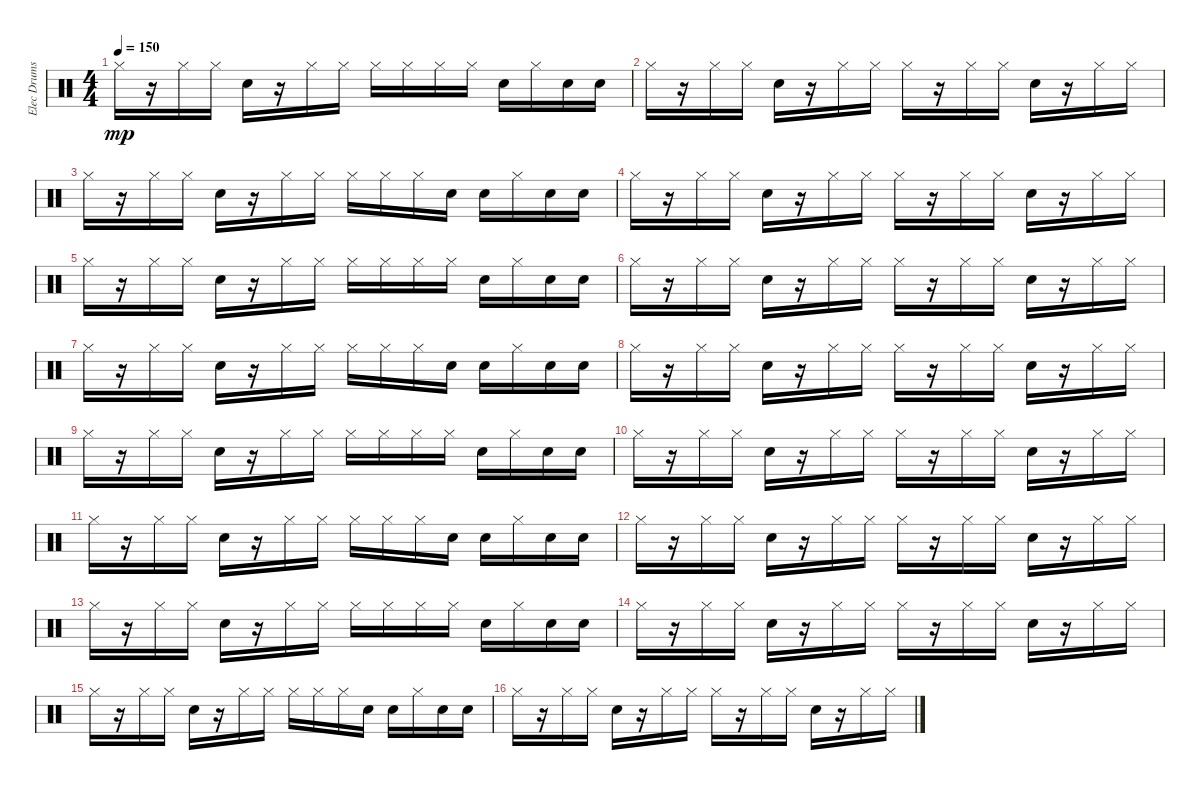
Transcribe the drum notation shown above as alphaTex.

\track ("Elec Drums" "Elec Drums") {instrument percussion}
\staff {score}
\articulation defaults
\ts (4 4)
\tempo 150
\clef neutral
\ks c "Hi-Hat (closed)".16{dy mp}
r.16 "Hi-Hat (closed)".16 "Hi-Hat (closed)".16 "Electric Snare (hit)".16 r.16 "Hi-Hat (closed)".16 "Hi-Hat (closed)".16 "Hi-Hat (closed)".16 "Hi-Hat (closed)".16 "Hi-Hat (closed)".16 "Hi-Hat (closed)".16 "Electric Snare (hit)".16 "Hi-Hat (closed)".16 "Electric Snare (hit)".16 "Electric Snare (hit)".16 |
"Hi-Hat (closed)".16 r.16 "Hi-Hat (closed)".16 "Hi-Hat (closed)".16 "Electric Snare (hit)".16 r.16 "Hi-Hat (closed)".16 "Hi-Hat (closed)".16 "Hi-Hat (closed)".16 r.16 "Hi-Hat (closed)".16 "Hi-Hat (closed)".16 "Electric Snare (hit)".16 r.16 "Hi-Hat (closed)".16 "Hi-Hat (closed)".16 |
"Hi-Hat (closed)".16 r.16 "Hi-Hat (closed)".16 "Hi-Hat (closed)".16 "Electric Snare (hit)".16 r.16 "Hi-Hat (closed)".16 "Hi-Hat (closed)".16 "Hi-Hat (closed)".16 "Hi-Hat (closed)".16 "Hi-Hat (closed)".16 "Electric Snare (hit)".16 "Electric Snare (hit)".16 "Hi-Hat (closed)".16 "Electric Snare (hit)".16 "Electric Snare (hit)".16 |
"Hi-Hat (closed)".16 r.16 "Hi-Hat (closed)".16 "Hi-Hat (closed)".16 "Electric Snare (hit)".16 r.16 "Hi-Hat (closed)".16 "Hi-Hat (closed)".16 "Hi-Hat (closed)".16 r.16 "Hi-Hat (closed)".16 "Hi-Hat (closed)".16 "Electric Snare (hit)".16 r.16 "Hi-Hat (closed)".16 "Hi-Hat (closed)".16 |
"Hi-Hat (closed)".16 r.16 "Hi-Hat (closed)".16 "Hi-Hat (closed)".16 "Electric Snare (hit)".16 r.16 "Hi-Hat (closed)".16 "Hi-Hat (closed)".16 "Hi-Hat (closed)".16 "Hi-Hat (closed)".16 "Hi-Hat (closed)".16 "Hi-Hat (closed)".16 "Electric Snare (hit)".16 "Hi-Hat (closed)".16 "Electric Snare (hit)".16 "Electric Snare (hit)".16 |
"Hi-Hat (closed)".16 r.16 "Hi-Hat (closed)".16 "Hi-Hat (closed)".16 "Electric Snare (hit)".16 r.16 "Hi-Hat (closed)".16 "Hi-Hat (closed)".16 "Hi-Hat (closed)".16 r.16 "Hi-Hat (closed)".16 "Hi-Hat (closed)".16 "Electric Snare (hit)".16 r.16 "Hi-Hat (closed)".16 "Hi-Hat (closed)".16 |
"Hi-Hat (closed)".16 r.16 "Hi-Hat (closed)".16 "Hi-Hat (closed)".16 "Electric Snare (hit)".16 r.16 "Hi-Hat (closed)".16 "Hi-Hat (closed)".16 "Hi-Hat (closed)".16 "Hi-Hat (closed)".16 "Hi-Hat (closed)".16 "Electric Snare (hit)".16 "Electric Snare (hit)".16 "Hi-Hat (closed)".16 "Electric Snare (hit)".16 "Electric Snare (hit)".16 |
"Hi-Hat (closed)".16 r.16 "Hi-Hat (closed)".16 "Hi-Hat (closed)".16 "Electric Snare (hit)".16 r.16 "Hi-Hat (closed)".16 "Hi-Hat (closed)".16 "Hi-Hat (closed)".16 r.16 "Hi-Hat (closed)".16 "Hi-Hat (closed)".16 "Electric Snare (hit)".16 r.16 "Hi-Hat (closed)".16 "Hi-Hat (closed)".16 |
"Hi-Hat (closed)".16 r.16 "Hi-Hat (closed)".16 "Hi-Hat (closed)".16 "Electric Snare (hit)".16 r.16 "Hi-Hat (closed)".16 "Hi-Hat (closed)".16 "Hi-Hat (closed)".16 "Hi-Hat (closed)".16 "Hi-Hat (closed)".16 "Hi-Hat (closed)".16 "Electric Snare (hit)".16 "Hi-Hat (closed)".16 "Electric Snare (hit)".16 "Electric Snare (hit)".16 |
"Hi-Hat (closed)".16 r.16 "Hi-Hat (closed)".16 "Hi-Hat (closed)".16 "Electric Snare (hit)".16 r.16 "Hi-Hat (closed)".16 "Hi-Hat (closed)".16 "Hi-Hat (closed)".16 r.16 "Hi-Hat (closed)".16 "Hi-Hat (closed)".16 "Electric Snare (hit)".16 r.16 "Hi-Hat (closed)".16 "Hi-Hat (closed)".16 |
"Hi-Hat (closed)".16 r.16 "Hi-Hat (closed)".16 "Hi-Hat (closed)".16 "Electric Snare (hit)".16 r.16 "Hi-Hat (closed)".16 "Hi-Hat (closed)".16 "Hi-Hat (closed)".16 "Hi-Hat (closed)".16 "Hi-Hat (closed)".16 "Electric Snare (hit)".16 "Electric Snare (hit)".16 "Hi-Hat (closed)".16 "Electric Snare (hit)".16 "Electric Snare (hit)".16 |
"Hi-Hat (closed)".16 r.16 "Hi-Hat (closed)".16 "Hi-Hat (closed)".16 "Electric Snare (hit)".16 r.16 "Hi-Hat (closed)".16 "Hi-Hat (closed)".16 "Hi-Hat (closed)".16 r.16 "Hi-Hat (closed)".16 "Hi-Hat (closed)".16 "Electric Snare (hit)".16 r.16 "Hi-Hat (closed)".16 "Hi-Hat (closed)".16 |
"Hi-Hat (closed)".16 r.16 "Hi-Hat (closed)".16 "Hi-Hat (closed)".16 "Electric Snare (hit)".16 r.16 "Hi-Hat (closed)".16 "Hi-Hat (closed)".16 "Hi-Hat (closed)".16 "Hi-Hat (closed)".16 "Hi-Hat (closed)".16 "Hi-Hat (closed)".16 "Electric Snare (hit)".16 "Hi-Hat (closed)".16 "Electric Snare (hit)".16 "Electric Snare (hit)".16 |
"Hi-Hat (closed)".16 r.16 "Hi-Hat (closed)".16 "Hi-Hat (closed)".16 "Electric Snare (hit)".16 r.16 "Hi-Hat (closed)".16 "Hi-Hat (closed)".16 "Hi-Hat (closed)".16 r.16 "Hi-Hat (closed)".16 "Hi-Hat (closed)".16 "Electric Snare (hit)".16 r.16 "Hi-Hat (closed)".16 "Hi-Hat (closed)".16 |
"Hi-Hat (closed)".16 r.16 "Hi-Hat (closed)".16 "Hi-Hat (closed)".16 "Electric Snare (hit)".16 r.16 "Hi-Hat (closed)".16 "Hi-Hat (closed)".16 "Hi-Hat (closed)".16 "Hi-Hat (closed)".16 "Hi-Hat (closed)".16 "Electric Snare (hit)".16 "Electric Snare (hit)".16 "Hi-Hat (closed)".16 "Electric Snare (hit)".16 "Electric Snare (hit)".16 |
"Hi-Hat (closed)".16 r.16 "Hi-Hat (closed)".16 "Hi-Hat (closed)".16 "Electric Snare (hit)".16 r.16 "Hi-Hat (closed)".16 "Hi-Hat (closed)".16 "Hi-Hat (closed)".16 r.16 "Hi-Hat (closed)".16 "Hi-Hat (closed)".16 "Electric Snare (hit)".16 r.16 "Hi-Hat (closed)".16 "Hi-Hat (closed)".16
